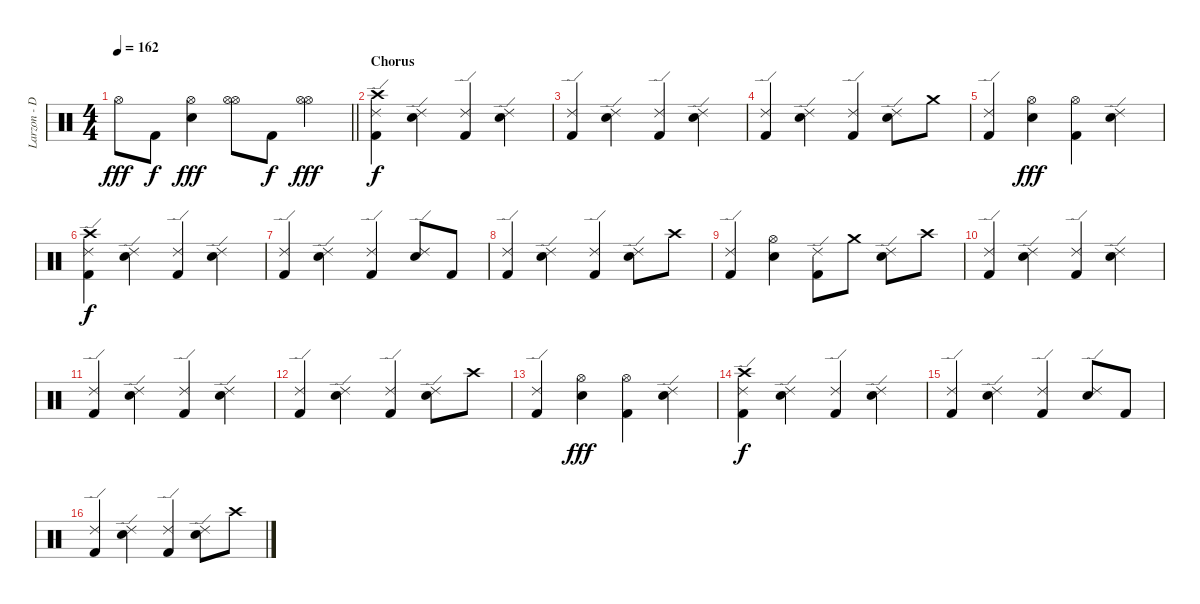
\track ("Larzon - Drums" "Larzon - D") {instrument percussion}
\staff {score}
\articulation defaults
\ts (4 4)
\tempo 162
\clef neutral
\barLineRight lightlight
\ks c "Hi-Hat (open)".8{dy fff} "Kick (hit) 2".8{dy f}
("Electric Snare (hit)" "Hi-Hat (open)").4{dy fff} ("Hi-Hat (open)" "Hi-Hat (open)").8 "Kick (hit) 2".8{dy f} ("Hi-Hat (open)" "Hi-Hat (open)").4{dy fff} |
\section ("" "Chorus")
("Kick (hit) 2" "Ride (edge) 2" "Crash high (hit)").4{dy f} ("Electric Snare (hit)" "Ride (edge) 2").4 ("Kick (hit) 2" "Ride (edge) 2").4 ("Electric Snare (hit)" "Ride (edge) 2").4 |
("Kick (hit) 2" "Ride (edge) 2").4 ("Electric Snare (hit)" "Ride (edge) 2").4 ("Kick (hit) 2" "Ride (edge) 2").4 ("Electric Snare (hit)" "Ride (edge) 2").4 |
("Kick (hit) 2" "Ride (edge) 2").4 ("Electric Snare (hit)" "Ride (edge) 2").4 ("Kick (hit) 2" "Ride (edge) 2").4 ("Electric Snare (hit)" "Ride (edge) 2").8 "Crash medium (hit)".8 |
("Kick (hit) 2" "Ride (edge) 2").4 ("Electric Snare (hit)" "Hi-Hat (open)").4{dy fff} ("Kick (hit) 2" "Hi-Hat (open)").4 ("Electric Snare (hit)" "Ride (edge) 2").4 |
("Kick (hit) 2" "Ride (edge) 2" "Crash high (hit)").4{dy f} ("Electric Snare (hit)" "Ride (edge) 2").4 ("Kick (hit) 2" "Ride (edge) 2").4 ("Electric Snare (hit)" "Ride (edge) 2").4 |
("Kick (hit) 2" "Ride (edge) 2").4 ("Electric Snare (hit)" "Ride (edge) 2").4 ("Kick (hit) 2" "Ride (edge) 2").4 ("Electric Snare (hit)" "Ride (edge) 2").8 "Kick (hit) 2".8 |
("Kick (hit) 2" "Ride (edge) 2").4 ("Electric Snare (hit)" "Ride (edge) 2").4 ("Kick (hit) 2" "Ride (edge) 2").4 ("Electric Snare (hit)" "Ride (edge) 2").8 "Crash high (hit)".8 |
("Kick (hit) 2" "Ride (edge) 2").4 ("Electric Snare (hit)" "Hi-Hat (open)").4 ("Kick (hit) 2" "Ride (edge) 2").8 "Crash medium (hit)".8 ("Electric Snare (hit)" "Ride (edge) 2").8 "Crash high (hit)".8 |
("Kick (hit) 2" "Ride (edge) 2").4 ("Electric Snare (hit)" "Ride (edge) 2").4 ("Kick (hit) 2" "Ride (edge) 2").4 ("Electric Snare (hit)" "Ride (edge) 2").4 |
("Kick (hit) 2" "Ride (edge) 2").4 ("Electric Snare (hit)" "Ride (edge) 2").4 ("Kick (hit) 2" "Ride (edge) 2").4 ("Electric Snare (hit)" "Ride (edge) 2").4 |
("Kick (hit) 2" "Ride (edge) 2").4 ("Electric Snare (hit)" "Ride (edge) 2").4 ("Kick (hit) 2" "Ride (edge) 2").4 ("Electric Snare (hit)" "Ride (edge) 2").8 "Crash high (hit)".8 |
("Kick (hit) 2" "Ride (edge) 2").4 ("Electric Snare (hit)" "Hi-Hat (open)").4{dy fff} ("Kick (hit) 2" "Hi-Hat (open)").4 ("Electric Snare (hit)" "Ride (edge) 2").4 |
("Kick (hit) 2" "Ride (edge) 2" "Crash high (hit)").4{dy f} ("Electric Snare (hit)" "Ride (edge) 2").4 ("Kick (hit) 2" "Ride (edge) 2").4 ("Electric Snare (hit)" "Ride (edge) 2").4 |
("Kick (hit) 2" "Ride (edge) 2").4 ("Electric Snare (hit)" "Ride (edge) 2").4 ("Kick (hit) 2" "Ride (edge) 2").4 ("Electric Snare (hit)" "Ride (edge) 2").8 "Kick (hit) 2".8 |
("Kick (hit) 2" "Ride (edge) 2").4 ("Electric Snare (hit)" "Ride (edge) 2").4 ("Kick (hit) 2" "Ride (edge) 2").4 ("Electric Snare (hit)" "Ride (edge) 2").8 "Crash high (hit)".8
